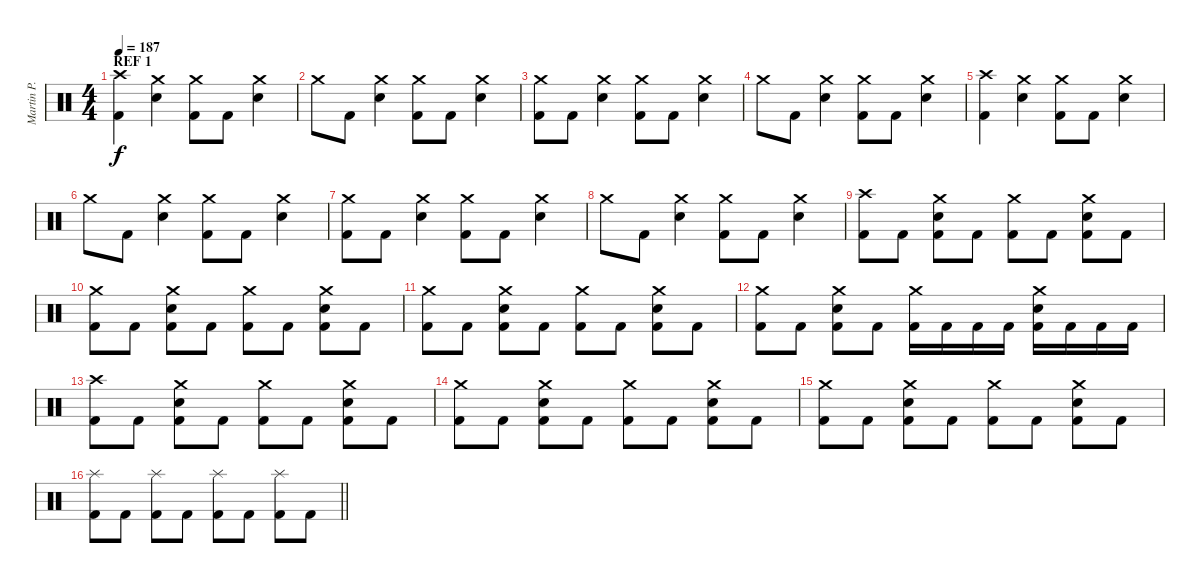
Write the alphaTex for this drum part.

\track ("Martin P." "Martin P.") {instrument percussion}
\staff {score}
\articulation defaults
\ts (4 4)
\section ("" "REF 1")
\tempo 187
\clef neutral
\ks c
("Kick (hit) 2" "Crash high (hit)").4{dy f} ("Electric Snare (hit)" "Crash medium (hit)").4 ("Kick (hit) 2" "Crash medium (hit)").8 "Kick (hit) 2".8 ("Electric Snare (hit)" "Crash medium (hit)").4 |
"Crash medium (hit)".8 "Kick (hit) 2".8 ("Electric Snare (hit)" "Crash medium (hit)").4 ("Kick (hit) 2" "Crash medium (hit)").8 "Kick (hit) 2".8 ("Electric Snare (hit)" "Crash medium (hit)").4 |
("Kick (hit) 2" "Crash medium (hit)").8 "Kick (hit) 2".8 ("Electric Snare (hit)" "Crash medium (hit)").4 ("Kick (hit) 2" "Crash medium (hit)").8 "Kick (hit) 2".8 ("Electric Snare (hit)" "Crash medium (hit)").4 |
"Crash medium (hit)".8 "Kick (hit) 2".8 ("Electric Snare (hit)" "Crash medium (hit)").4 ("Kick (hit) 2" "Crash medium (hit)").8 "Kick (hit) 2".8 ("Electric Snare (hit)" "Crash medium (hit)").4 |
("Kick (hit) 2" "Crash high (hit)").4 ("Electric Snare (hit)" "Crash medium (hit)").4 ("Kick (hit) 2" "Crash medium (hit)").8 "Kick (hit) 2".8 ("Electric Snare (hit)" "Crash medium (hit)").4 |
"Crash medium (hit)".8 "Kick (hit) 2".8 ("Electric Snare (hit)" "Crash medium (hit)").4 ("Kick (hit) 2" "Crash medium (hit)").8 "Kick (hit) 2".8 ("Electric Snare (hit)" "Crash medium (hit)").4 |
("Kick (hit) 2" "Crash medium (hit)").8 "Kick (hit) 2".8 ("Electric Snare (hit)" "Crash medium (hit)").4 ("Kick (hit) 2" "Crash medium (hit)").8 "Kick (hit) 2".8 ("Electric Snare (hit)" "Crash medium (hit)").4 |
"Crash medium (hit)".8 "Kick (hit) 2".8 ("Electric Snare (hit)" "Crash medium (hit)").4 ("Kick (hit) 2" "Crash medium (hit)").8 "Kick (hit) 2".8 ("Electric Snare (hit)" "Crash medium (hit)").4 |
("Kick (hit) 2" "Crash high (hit)").8 "Kick (hit) 2".8 ("Kick (hit) 2" "Electric Snare (hit)" "Crash medium (hit)").8 "Kick (hit) 2".8 ("Kick (hit) 2" "Crash medium (hit)").8 "Kick (hit) 2".8 ("Kick (hit) 2" "Electric Snare (hit)" "Crash medium (hit)").8 "Kick (hit) 2".8 |
("Kick (hit) 2" "Crash medium (hit)").8 "Kick (hit) 2".8 ("Kick (hit) 2" "Electric Snare (hit)" "Crash medium (hit)").8 "Kick (hit) 2".8 ("Kick (hit) 2" "Crash medium (hit)").8 "Kick (hit) 2".8 ("Kick (hit) 2" "Electric Snare (hit)" "Crash medium (hit)").8 "Kick (hit) 2".8 |
("Kick (hit) 2" "Crash medium (hit)").8 "Kick (hit) 2".8 ("Kick (hit) 2" "Electric Snare (hit)" "Crash medium (hit)").8 "Kick (hit) 2".8 ("Kick (hit) 2" "Crash medium (hit)").8 "Kick (hit) 2".8 ("Kick (hit) 2" "Electric Snare (hit)" "Crash medium (hit)").8 "Kick (hit) 2".8 |
("Kick (hit) 2" "Crash medium (hit)").8 "Kick (hit) 2".8 ("Kick (hit) 2" "Electric Snare (hit)" "Crash medium (hit)").8 "Kick (hit) 2".8 ("Kick (hit) 2" "Crash medium (hit)").16 "Kick (hit) 2".16 "Kick (hit) 2".16 "Kick (hit) 2".16 ("Kick (hit) 2" "Electric Snare (hit)" "Crash medium (hit)").16 "Kick (hit) 2".16 "Kick (hit) 2".16 "Kick (hit) 2".16 |
("Kick (hit) 2" "Crash high (hit)").8 "Kick (hit) 2".8 ("Kick (hit) 2" "Electric Snare (hit)" "Crash medium (hit)").8 "Kick (hit) 2".8 ("Kick (hit) 2" "Crash medium (hit)").8 "Kick (hit) 2".8 ("Kick (hit) 2" "Electric Snare (hit)" "Crash medium (hit)").8 "Kick (hit) 2".8 |
("Kick (hit) 2" "Crash medium (hit)").8 "Kick (hit) 2".8 ("Kick (hit) 2" "Electric Snare (hit)" "Crash medium (hit)").8 "Kick (hit) 2".8 ("Kick (hit) 2" "Crash medium (hit)").8 "Kick (hit) 2".8 ("Kick (hit) 2" "Electric Snare (hit)" "Crash medium (hit)").8 "Kick (hit) 2".8 |
("Kick (hit) 2" "Crash medium (hit)").8 "Kick (hit) 2".8 ("Kick (hit) 2" "Electric Snare (hit)" "Crash medium (hit)").8 "Kick (hit) 2".8 ("Kick (hit) 2" "Crash medium (hit)").8 "Kick (hit) 2".8 ("Kick (hit) 2" "Electric Snare (hit)" "Crash medium (hit)").8 "Kick (hit) 2".8 |
\barLineRight lightlight
("Kick (hit) 2" "Splash (hit)").8 "Kick (hit) 2".8 ("Kick (hit) 2" "Splash (hit)").8 "Kick (hit) 2".8 ("Kick (hit) 2" "Splash (hit)").8 "Kick (hit) 2".8 ("Kick (hit) 2" "Splash (hit)").8 "Kick (hit) 2".8
